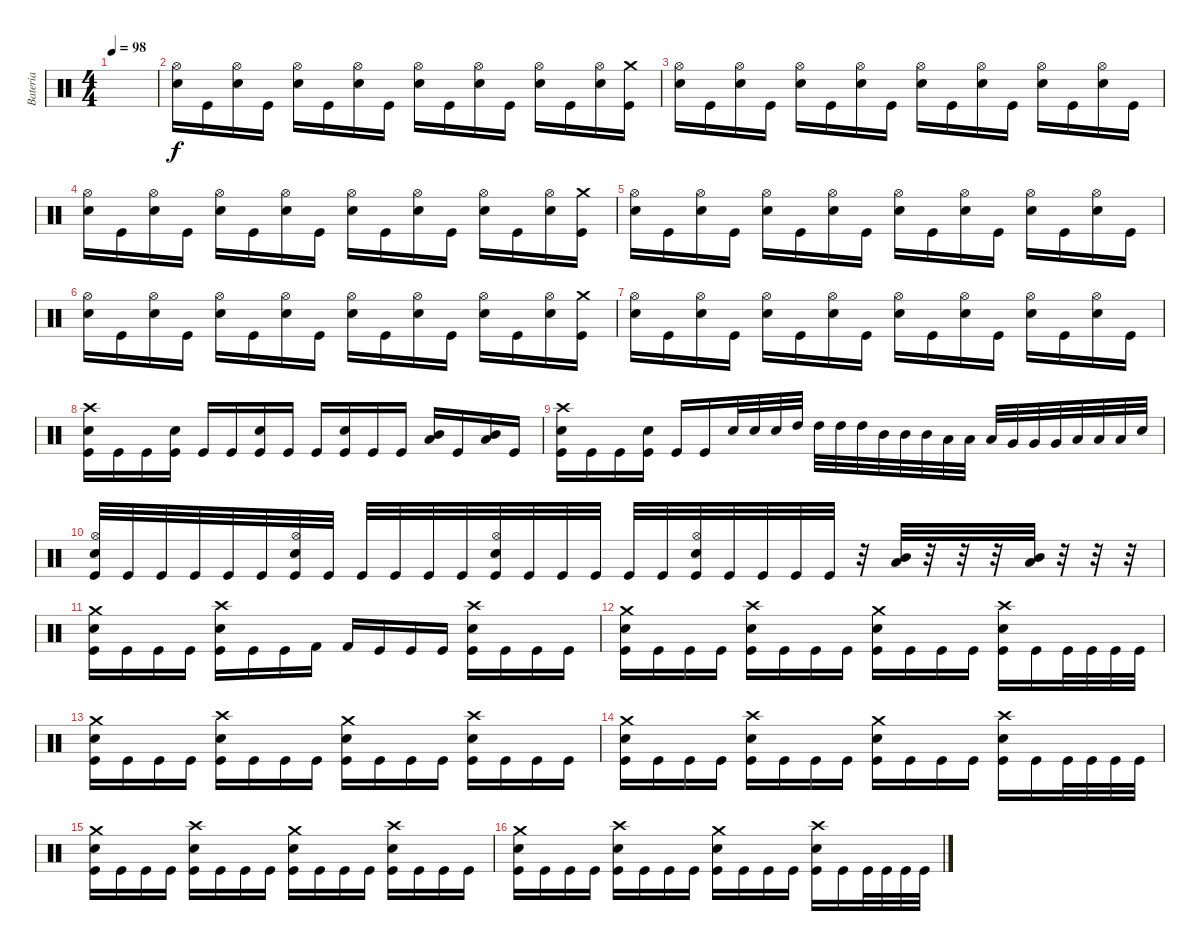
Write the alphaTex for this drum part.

\track ("Bateria" "Bateria") {instrument percussion}
\staff {score}
\articulation defaults
\ts (4 4)
\tempo 98
\clef neutral
\ks c
|
("Electric Snare (hit)" "Hi-Hat (open)").16 "Kick (hit)".16 ("Electric Snare (hit)" "Hi-Hat (open)").16 "Kick (hit)".16 ("Electric Snare (hit)" "Hi-Hat (open)").16 "Kick (hit)".16 ("Electric Snare (hit)" "Hi-Hat (open)").16 "Kick (hit)".16 ("Electric Snare (hit)" "Hi-Hat (open)").16 "Kick (hit)".16 ("Electric Snare (hit)" "Hi-Hat (open)").16 "Kick (hit)".16 ("Electric Snare (hit)" "Hi-Hat (open)").16 "Kick (hit)".16 ("Electric Snare (hit)" "Hi-Hat (open)").16 ("Crash medium (hit)" "Kick (hit)").16 |
("Electric Snare (hit)" "Hi-Hat (open)").16 "Kick (hit)".16 ("Electric Snare (hit)" "Hi-Hat (open)").16 "Kick (hit)".16 ("Electric Snare (hit)" "Hi-Hat (open)").16 "Kick (hit)".16 ("Electric Snare (hit)" "Hi-Hat (open)").16 "Kick (hit)".16 ("Electric Snare (hit)" "Hi-Hat (open)").16 "Kick (hit)".16 ("Electric Snare (hit)" "Hi-Hat (open)").16 "Kick (hit)".16 ("Electric Snare (hit)" "Hi-Hat (open)").16 "Kick (hit)".16 ("Electric Snare (hit)" "Hi-Hat (open)").16 "Kick (hit)".16 |
("Electric Snare (hit)" "Hi-Hat (open)").16 "Kick (hit)".16 ("Electric Snare (hit)" "Hi-Hat (open)").16 "Kick (hit)".16 ("Electric Snare (hit)" "Hi-Hat (open)").16 "Kick (hit)".16 ("Electric Snare (hit)" "Hi-Hat (open)").16 "Kick (hit)".16 ("Electric Snare (hit)" "Hi-Hat (open)").16 "Kick (hit)".16 ("Electric Snare (hit)" "Hi-Hat (open)").16 "Kick (hit)".16 ("Electric Snare (hit)" "Hi-Hat (open)").16 "Kick (hit)".16 ("Electric Snare (hit)" "Hi-Hat (open)").16 ("Crash medium (hit)" "Kick (hit)").16 |
("Electric Snare (hit)" "Hi-Hat (open)").16 "Kick (hit)".16 ("Electric Snare (hit)" "Hi-Hat (open)").16 "Kick (hit)".16 ("Electric Snare (hit)" "Hi-Hat (open)").16 "Kick (hit)".16 ("Electric Snare (hit)" "Hi-Hat (open)").16 "Kick (hit)".16 ("Electric Snare (hit)" "Hi-Hat (open)").16 "Kick (hit)".16 ("Electric Snare (hit)" "Hi-Hat (open)").16 "Kick (hit)".16 ("Electric Snare (hit)" "Hi-Hat (open)").16 "Kick (hit)".16 ("Electric Snare (hit)" "Hi-Hat (open)").16 "Kick (hit)".16 |
("Electric Snare (hit)" "Hi-Hat (open)").16 "Kick (hit)".16 ("Electric Snare (hit)" "Hi-Hat (open)").16 "Kick (hit)".16 ("Electric Snare (hit)" "Hi-Hat (open)").16 "Kick (hit)".16 ("Electric Snare (hit)" "Hi-Hat (open)").16 "Kick (hit)".16 ("Electric Snare (hit)" "Hi-Hat (open)").16 "Kick (hit)".16 ("Electric Snare (hit)" "Hi-Hat (open)").16 "Kick (hit)".16 ("Electric Snare (hit)" "Hi-Hat (open)").16 "Kick (hit)".16 ("Electric Snare (hit)" "Hi-Hat (open)").16 ("Crash medium (hit)" "Kick (hit)").16 |
("Electric Snare (hit)" "Hi-Hat (open)").16 "Kick (hit)".16 ("Electric Snare (hit)" "Hi-Hat (open)").16 "Kick (hit)".16 ("Electric Snare (hit)" "Hi-Hat (open)").16 "Kick (hit)".16 ("Electric Snare (hit)" "Hi-Hat (open)").16 "Kick (hit)".16 ("Electric Snare (hit)" "Hi-Hat (open)").16 "Kick (hit)".16 ("Electric Snare (hit)" "Hi-Hat (open)").16 "Kick (hit)".16 ("Electric Snare (hit)" "Hi-Hat (open)").16 "Kick (hit)".16 ("Electric Snare (hit)" "Hi-Hat (open)").16 "Kick (hit)".16 |
("Crash high (hit)" "Electric Snare (hit)" "Kick (hit)").16 "Kick (hit)".16 "Kick (hit)".16 ("Electric Snare (hit)" "Kick (hit)").16 "Kick (hit)".16 "Kick (hit)".16 ("Electric Snare (hit)" "Kick (hit)").16 "Kick (hit)".16 "Kick (hit)".16 ("Electric Snare (hit)" "Kick (hit)").16 "Kick (hit)".16 "Kick (hit)".16 ("Mid Tom (hit)" "Low Floor Tom (hit)").16 "Kick (hit)".16 ("Mid Tom (hit)" "Low Floor Tom (hit)").16 "Kick (hit)".16 |
("Crash high (hit)" "Electric Snare (hit)" "Kick (hit)").16 "Kick (hit)".16 "Kick (hit)".16 ("Electric Snare (hit)" "Kick (hit)").16 "Kick (hit)".16 "Kick (hit)".16 "Electric Snare (hit)".32 "Electric Snare (hit)".32 "Electric Snare (hit)".32 "High Tom (hit)".32 "High Tom (hit)".32 "High Tom (hit)".32 "High Tom (hit)".32 "Mid Tom (hit)".32 "Mid Tom (hit)".32 "Mid Tom (hit)".32 "Low Tom (hit)".32 "Low Tom (hit)".32 "Low Tom (hit)".32 "Very Low Tom (hit)".32 "Very Low Tom (hit)".32 "Very Low Tom (hit)".32 "Low Floor Tom (hit)".32 "Low Floor Tom (hit)".32 "Low Floor Tom (hit)".32 "Electric Snare (hit)".32 |
("Hi-Hat (open)" "Electric Snare (hit)" "Kick (hit)").32 "Kick (hit)".32 "Kick (hit)".32 "Kick (hit)".32 "Kick (hit)".32 "Kick (hit)".32 ("Hi-Hat (open)" "Electric Snare (hit)" "Kick (hit)").32 "Kick (hit)".32 "Kick (hit)".32 "Kick (hit)".32 "Kick (hit)".32 "Kick (hit)".32 ("Hi-Hat (open)" "Electric Snare (hit)" "Kick (hit)").32 "Kick (hit)".32 "Kick (hit)".32 "Kick (hit)".32 "Kick (hit)".32 "Kick (hit)".32 ("Hi-Hat (open)" "Electric Snare (hit)" "Kick (hit)").32 "Kick (hit)".32 "Kick (hit)".32 "Kick (hit)".32 "Kick (hit)".32 r.32 ("Mid Tom (hit)" "Low Floor Tom (hit)").32 r.32 r.32 r.32 ("Mid Tom (hit)" "Low Floor Tom (hit)").32 r.32 r.32 r.32 |
("Crash medium (hit)" "Electric Snare (hit)" "Kick (hit)").16 "Kick (hit)".16 "Kick (hit)".16 "Kick (hit)".16 ("Crash high (hit)" "Electric Snare (hit)" "Kick (hit)").16 "Kick (hit)".16 "Kick (hit)".16 "Kick (hit) 2".16 "Kick (hit) 2".16 "Kick (hit)".16 "Kick (hit)".16 "Kick (hit)".16 ("Crash high (hit)" "Electric Snare (hit)" "Kick (hit)").16 "Kick (hit)".16 "Kick (hit)".16 "Kick (hit)".16 |
("Crash medium (hit)" "Electric Snare (hit)" "Kick (hit)").16 "Kick (hit)".16 "Kick (hit)".16 "Kick (hit)".16 ("Crash high (hit)" "Electric Snare (hit)" "Kick (hit)").16 "Kick (hit)".16 "Kick (hit)".16 "Kick (hit)".16 ("Crash medium (hit)" "Electric Snare (hit)" "Kick (hit)").16 "Kick (hit)".16 "Kick (hit)".16 "Kick (hit)".16 ("Crash high (hit)" "Electric Snare (hit)" "Kick (hit)").16 "Kick (hit)".16 "Kick (hit)".32 "Kick (hit)".32 "Kick (hit)".32 "Kick (hit)".32 |
("Crash medium (hit)" "Electric Snare (hit)" "Kick (hit)").16 "Kick (hit)".16 "Kick (hit)".16 "Kick (hit)".16 ("Crash high (hit)" "Electric Snare (hit)" "Kick (hit)").16 "Kick (hit)".16 "Kick (hit)".16 "Kick (hit)".16 ("Crash medium (hit)" "Electric Snare (hit)" "Kick (hit)").16 "Kick (hit)".16 "Kick (hit)".16 "Kick (hit)".16 ("Crash high (hit)" "Electric Snare (hit)" "Kick (hit)").16 "Kick (hit)".16 "Kick (hit)".16 "Kick (hit)".16 |
("Crash medium (hit)" "Electric Snare (hit)" "Kick (hit)").16 "Kick (hit)".16 "Kick (hit)".16 "Kick (hit)".16 ("Crash high (hit)" "Electric Snare (hit)" "Kick (hit)").16 "Kick (hit)".16 "Kick (hit)".16 "Kick (hit)".16 ("Crash medium (hit)" "Electric Snare (hit)" "Kick (hit)").16 "Kick (hit)".16 "Kick (hit)".16 "Kick (hit)".16 ("Crash high (hit)" "Electric Snare (hit)" "Kick (hit)").16 "Kick (hit)".16 "Kick (hit)".32 "Kick (hit)".32 "Kick (hit)".32 "Kick (hit)".32 |
("Crash medium (hit)" "Electric Snare (hit)" "Kick (hit)").16 "Kick (hit)".16 "Kick (hit)".16 "Kick (hit)".16 ("Crash high (hit)" "Electric Snare (hit)" "Kick (hit)").16 "Kick (hit)".16 "Kick (hit)".16 "Kick (hit)".16 ("Crash medium (hit)" "Electric Snare (hit)" "Kick (hit)").16 "Kick (hit)".16 "Kick (hit)".16 "Kick (hit)".16 ("Crash high (hit)" "Electric Snare (hit)" "Kick (hit)").16 "Kick (hit)".16 "Kick (hit)".16 "Kick (hit)".16 |
("Crash medium (hit)" "Electric Snare (hit)" "Kick (hit)").16 "Kick (hit)".16 "Kick (hit)".16 "Kick (hit)".16 ("Crash high (hit)" "Electric Snare (hit)" "Kick (hit)").16 "Kick (hit)".16 "Kick (hit)".16 "Kick (hit)".16 ("Crash medium (hit)" "Electric Snare (hit)" "Kick (hit)").16 "Kick (hit)".16 "Kick (hit)".16 "Kick (hit)".16 ("Crash high (hit)" "Electric Snare (hit)" "Kick (hit)").16 "Kick (hit)".16 "Kick (hit)".32 "Kick (hit)".32 "Kick (hit)".32 "Kick (hit)".32
